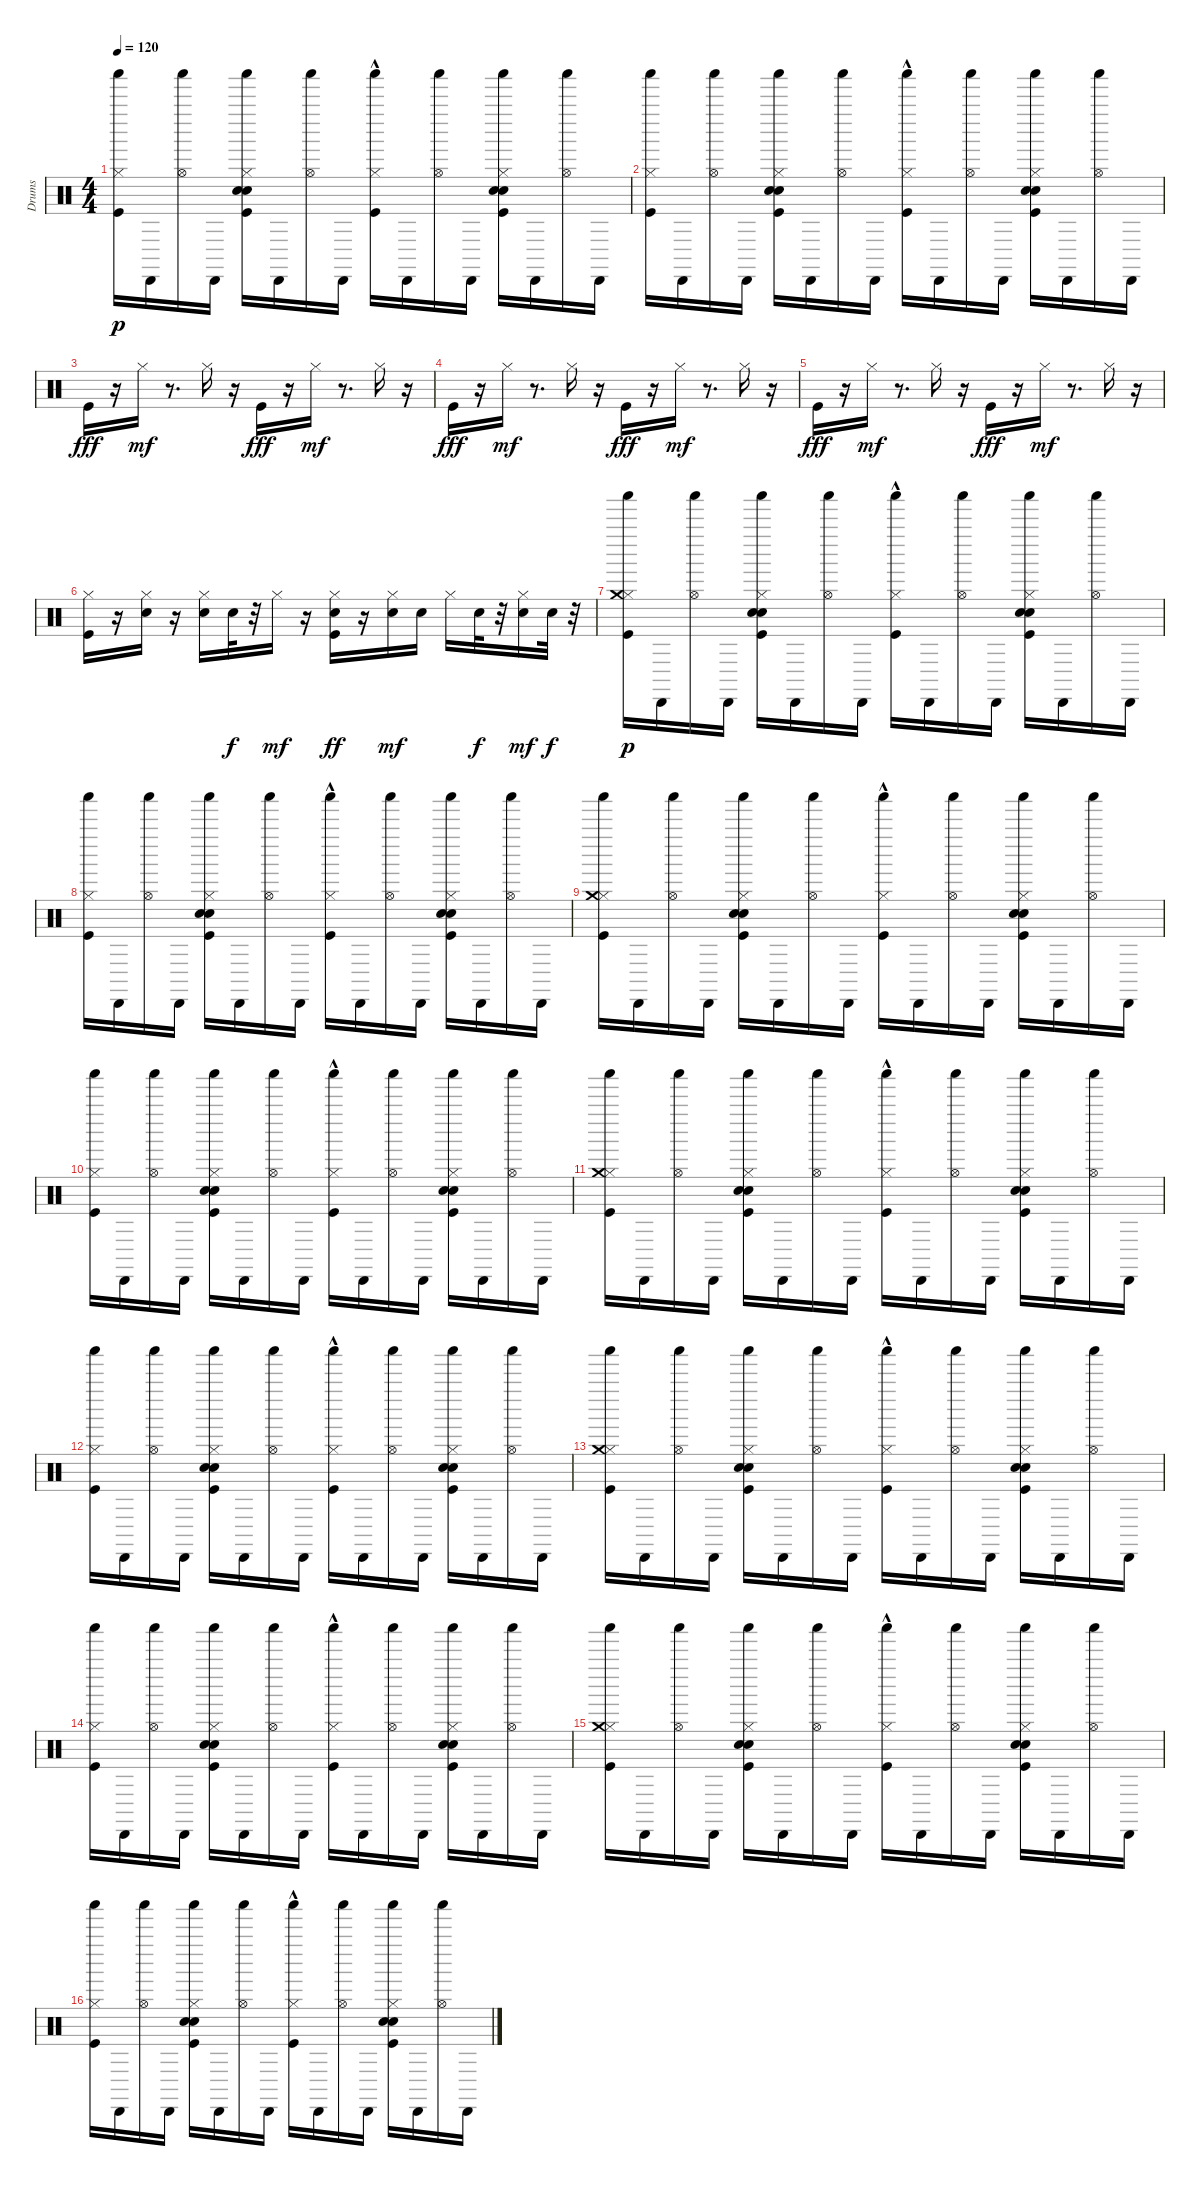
\track ("Drums" "Drums") {instrument percussion}
\staff {score}
\articulation defaults
\ts (4 4)
\tempo 120
\clef neutral
\ks c
("Kick (hit)" "Hi-Hat (closed)" "Shaker (hit)").16{dy p} "Cabasa (hit)".16 ("Hi-Hat (open)" "Shaker (hit)").16 "Cabasa (hit)".16 ("Kick (hit)" "Snare (hit) 2" "Electric Snare (hit)" "Hi-Hat (closed)" "Shaker (hit)").16 "Cabasa (hit)".16 ("Hi-Hat (open)" "Shaker (hit)").16 "Cabasa (hit)".16 ("Kick (hit)" "Hi-Hat (closed)" "Shaker (hit)"{hac}).16 "Cabasa (hit)".16 ("Hi-Hat (open)" "Shaker (hit)").16 "Cabasa (hit)".16 ("Kick (hit)" "Snare (hit) 2" "Electric Snare (hit)" "Hi-Hat (closed)" "Shaker (hit)").16 "Cabasa (hit)".16 ("Hi-Hat (open)" "Shaker (hit)").16 "Cabasa (hit)".16 |
("Kick (hit)" "Hi-Hat (closed)" "Shaker (hit)").16 "Cabasa (hit)".16 ("Hi-Hat (open)" "Shaker (hit)").16 "Cabasa (hit)".16 ("Kick (hit)" "Snare (hit) 2" "Electric Snare (hit)" "Hi-Hat (closed)" "Shaker (hit)").16 "Cabasa (hit)".16 ("Hi-Hat (open)" "Shaker (hit)").16 "Cabasa (hit)".16 ("Kick (hit)" "Hi-Hat (closed)" "Shaker (hit)"{hac}).16 "Cabasa (hit)".16 ("Hi-Hat (open)" "Shaker (hit)").16 "Cabasa (hit)".16 ("Kick (hit)" "Snare (hit) 2" "Electric Snare (hit)" "Hi-Hat (closed)" "Shaker (hit)").16 "Cabasa (hit)".16 ("Hi-Hat (open)" "Shaker (hit)").16 "Cabasa (hit)".16 |
"Kick (hit)".16{dy fff} r.16 "Hi-Hat (closed)".16{dy mf} r.8{d} "Hi-Hat (closed)".16 r.16 "Kick (hit)".16{dy fff} r.16 "Hi-Hat (closed)".16{dy mf} r.8{d} "Hi-Hat (closed)".16 r.16 |
"Kick (hit)".16{dy fff} r.16 "Hi-Hat (closed)".16{dy mf} r.8{d} "Hi-Hat (closed)".16 r.16 "Kick (hit)".16{dy fff} r.16 "Hi-Hat (closed)".16{dy mf} r.8{d} "Hi-Hat (closed)".16 r.16 |
"Kick (hit)".16{dy fff} r.16 "Hi-Hat (closed)".16{dy mf} r.8{d} "Hi-Hat (closed)".16 r.16 "Kick (hit)".16{dy fff} r.16 "Hi-Hat (closed)".16{dy mf} r.8{d} "Hi-Hat (closed)".16 r.16 |
("Kick (hit)" "Hi-Hat (closed)").16 r.16 ("Snare (hit) 2" "Hi-Hat (closed)").16 r.16 ("Hi-Hat (closed)" "Snare (hit) 2").16 "Snare (hit) 2".32{dy f} r.32 "Hi-Hat (closed)".16{dy mf} r.16 ("Hi-Hat (closed)" "Kick (hit)" "Snare (hit) 2").16{dy ff} r.16 ("Snare (hit) 2" "Hi-Hat (closed)").16{dy mf} "Snare (hit) 2".16 "Hi-Hat (closed)".16 "Snare (hit) 2".32{dy f} r.32 ("Snare (hit) 2" "Hi-Hat (closed)").16{dy mf} "Snare (hit) 2".32{dy f} r.32 |
("Kick (hit)" "Hi-Hat (closed)" "Crash medium (hit)" "Shaker (hit)").16{dy p} "Cabasa (hit)".16 ("Hi-Hat (open)" "Shaker (hit)").16 "Cabasa (hit)".16 ("Kick (hit)" "Snare (hit) 2" "Electric Snare (hit)" "Hi-Hat (closed)" "Shaker (hit)").16 "Cabasa (hit)".16 ("Hi-Hat (open)" "Shaker (hit)").16 "Cabasa (hit)".16 ("Kick (hit)" "Hi-Hat (closed)" "Shaker (hit)"{hac}).16 "Cabasa (hit)".16 ("Hi-Hat (open)" "Shaker (hit)").16 "Cabasa (hit)".16 ("Kick (hit)" "Snare (hit) 2" "Electric Snare (hit)" "Hi-Hat (closed)" "Shaker (hit)").16 "Cabasa (hit)".16 ("Hi-Hat (open)" "Shaker (hit)").16 "Cabasa (hit)".16 |
("Kick (hit)" "Hi-Hat (closed)" "Shaker (hit)").16 "Cabasa (hit)".16 ("Hi-Hat (open)" "Shaker (hit)").16 "Cabasa (hit)".16 ("Kick (hit)" "Snare (hit) 2" "Electric Snare (hit)" "Hi-Hat (closed)" "Shaker (hit)").16 "Cabasa (hit)".16 ("Hi-Hat (open)" "Shaker (hit)").16 "Cabasa (hit)".16 ("Kick (hit)" "Hi-Hat (closed)" "Shaker (hit)"{hac}).16 "Cabasa (hit)".16 ("Hi-Hat (open)" "Shaker (hit)").16 "Cabasa (hit)".16 ("Kick (hit)" "Snare (hit) 2" "Electric Snare (hit)" "Hi-Hat (closed)" "Shaker (hit)").16 "Cabasa (hit)".16 ("Hi-Hat (open)" "Shaker (hit)").16 "Cabasa (hit)".16 |
("Kick (hit)" "Hi-Hat (closed)" "Crash medium (hit)" "Shaker (hit)").16 "Cabasa (hit)".16 ("Hi-Hat (open)" "Shaker (hit)").16 "Cabasa (hit)".16 ("Kick (hit)" "Snare (hit) 2" "Electric Snare (hit)" "Hi-Hat (closed)" "Shaker (hit)").16 "Cabasa (hit)".16 ("Hi-Hat (open)" "Shaker (hit)").16 "Cabasa (hit)".16 ("Kick (hit)" "Hi-Hat (closed)" "Shaker (hit)"{hac}).16 "Cabasa (hit)".16 ("Hi-Hat (open)" "Shaker (hit)").16 "Cabasa (hit)".16 ("Kick (hit)" "Snare (hit) 2" "Electric Snare (hit)" "Hi-Hat (closed)" "Shaker (hit)").16 "Cabasa (hit)".16 ("Hi-Hat (open)" "Shaker (hit)").16 "Cabasa (hit)".16 |
("Kick (hit)" "Hi-Hat (closed)" "Shaker (hit)").16 "Cabasa (hit)".16 ("Hi-Hat (open)" "Shaker (hit)").16 "Cabasa (hit)".16 ("Kick (hit)" "Snare (hit) 2" "Electric Snare (hit)" "Hi-Hat (closed)" "Shaker (hit)").16 "Cabasa (hit)".16 ("Hi-Hat (open)" "Shaker (hit)").16 "Cabasa (hit)".16 ("Kick (hit)" "Hi-Hat (closed)" "Shaker (hit)"{hac}).16 "Cabasa (hit)".16 ("Hi-Hat (open)" "Shaker (hit)").16 "Cabasa (hit)".16 ("Kick (hit)" "Snare (hit) 2" "Electric Snare (hit)" "Hi-Hat (closed)" "Shaker (hit)").16 "Cabasa (hit)".16 ("Hi-Hat (open)" "Shaker (hit)").16 "Cabasa (hit)".16 |
("Kick (hit)" "Hi-Hat (closed)" "Crash medium (hit)" "Shaker (hit)").16 "Cabasa (hit)".16 ("Hi-Hat (open)" "Shaker (hit)").16 "Cabasa (hit)".16 ("Kick (hit)" "Snare (hit) 2" "Electric Snare (hit)" "Hi-Hat (closed)" "Shaker (hit)").16 "Cabasa (hit)".16 ("Hi-Hat (open)" "Shaker (hit)").16 "Cabasa (hit)".16 ("Kick (hit)" "Hi-Hat (closed)" "Shaker (hit)"{hac}).16 "Cabasa (hit)".16 ("Hi-Hat (open)" "Shaker (hit)").16 "Cabasa (hit)".16 ("Kick (hit)" "Snare (hit) 2" "Electric Snare (hit)" "Hi-Hat (closed)" "Shaker (hit)").16 "Cabasa (hit)".16 ("Hi-Hat (open)" "Shaker (hit)").16 "Cabasa (hit)".16 |
("Kick (hit)" "Hi-Hat (closed)" "Shaker (hit)").16 "Cabasa (hit)".16 ("Hi-Hat (open)" "Shaker (hit)").16 "Cabasa (hit)".16 ("Kick (hit)" "Snare (hit) 2" "Electric Snare (hit)" "Hi-Hat (closed)" "Shaker (hit)").16 "Cabasa (hit)".16 ("Hi-Hat (open)" "Shaker (hit)").16 "Cabasa (hit)".16 ("Kick (hit)" "Hi-Hat (closed)" "Shaker (hit)"{hac}).16 "Cabasa (hit)".16 ("Hi-Hat (open)" "Shaker (hit)").16 "Cabasa (hit)".16 ("Kick (hit)" "Snare (hit) 2" "Electric Snare (hit)" "Hi-Hat (closed)" "Shaker (hit)").16 "Cabasa (hit)".16 ("Hi-Hat (open)" "Shaker (hit)").16 "Cabasa (hit)".16 |
("Kick (hit)" "Hi-Hat (closed)" "Crash medium (hit)" "Shaker (hit)").16 "Cabasa (hit)".16 ("Hi-Hat (open)" "Shaker (hit)").16 "Cabasa (hit)".16 ("Kick (hit)" "Snare (hit) 2" "Electric Snare (hit)" "Hi-Hat (closed)" "Shaker (hit)").16 "Cabasa (hit)".16 ("Hi-Hat (open)" "Shaker (hit)").16 "Cabasa (hit)".16 ("Kick (hit)" "Hi-Hat (closed)" "Shaker (hit)"{hac}).16 "Cabasa (hit)".16 ("Hi-Hat (open)" "Shaker (hit)").16 "Cabasa (hit)".16 ("Kick (hit)" "Snare (hit) 2" "Electric Snare (hit)" "Hi-Hat (closed)" "Shaker (hit)").16 "Cabasa (hit)".16 ("Hi-Hat (open)" "Shaker (hit)").16 "Cabasa (hit)".16 |
("Kick (hit)" "Hi-Hat (closed)" "Shaker (hit)").16 "Cabasa (hit)".16 ("Hi-Hat (open)" "Shaker (hit)").16 "Cabasa (hit)".16 ("Kick (hit)" "Snare (hit) 2" "Electric Snare (hit)" "Hi-Hat (closed)" "Shaker (hit)").16 "Cabasa (hit)".16 ("Hi-Hat (open)" "Shaker (hit)").16 "Cabasa (hit)".16 ("Kick (hit)" "Hi-Hat (closed)" "Shaker (hit)"{hac}).16 "Cabasa (hit)".16 ("Hi-Hat (open)" "Shaker (hit)").16 "Cabasa (hit)".16 ("Kick (hit)" "Snare (hit) 2" "Electric Snare (hit)" "Hi-Hat (closed)" "Shaker (hit)").16 "Cabasa (hit)".16 ("Hi-Hat (open)" "Shaker (hit)").16 "Cabasa (hit)".16 |
("Kick (hit)" "Hi-Hat (closed)" "Crash medium (hit)" "Shaker (hit)").16 "Cabasa (hit)".16 ("Hi-Hat (open)" "Shaker (hit)").16 "Cabasa (hit)".16 ("Kick (hit)" "Snare (hit) 2" "Electric Snare (hit)" "Hi-Hat (closed)" "Shaker (hit)").16 "Cabasa (hit)".16 ("Hi-Hat (open)" "Shaker (hit)").16 "Cabasa (hit)".16 ("Kick (hit)" "Hi-Hat (closed)" "Shaker (hit)"{hac}).16 "Cabasa (hit)".16 ("Hi-Hat (open)" "Shaker (hit)").16 "Cabasa (hit)".16 ("Kick (hit)" "Snare (hit) 2" "Electric Snare (hit)" "Hi-Hat (closed)" "Shaker (hit)").16 "Cabasa (hit)".16 ("Hi-Hat (open)" "Shaker (hit)").16 "Cabasa (hit)".16 |
("Kick (hit)" "Hi-Hat (closed)" "Shaker (hit)").16 "Cabasa (hit)".16 ("Hi-Hat (open)" "Shaker (hit)").16 "Cabasa (hit)".16 ("Kick (hit)" "Snare (hit) 2" "Electric Snare (hit)" "Hi-Hat (closed)" "Shaker (hit)").16 "Cabasa (hit)".16 ("Hi-Hat (open)" "Shaker (hit)").16 "Cabasa (hit)".16 ("Kick (hit)" "Hi-Hat (closed)" "Shaker (hit)"{hac}).16 "Cabasa (hit)".16 ("Hi-Hat (open)" "Shaker (hit)").16 "Cabasa (hit)".16 ("Kick (hit)" "Snare (hit) 2" "Electric Snare (hit)" "Hi-Hat (closed)" "Shaker (hit)").16 "Cabasa (hit)".16 ("Hi-Hat (open)" "Shaker (hit)").16 "Cabasa (hit)".16
